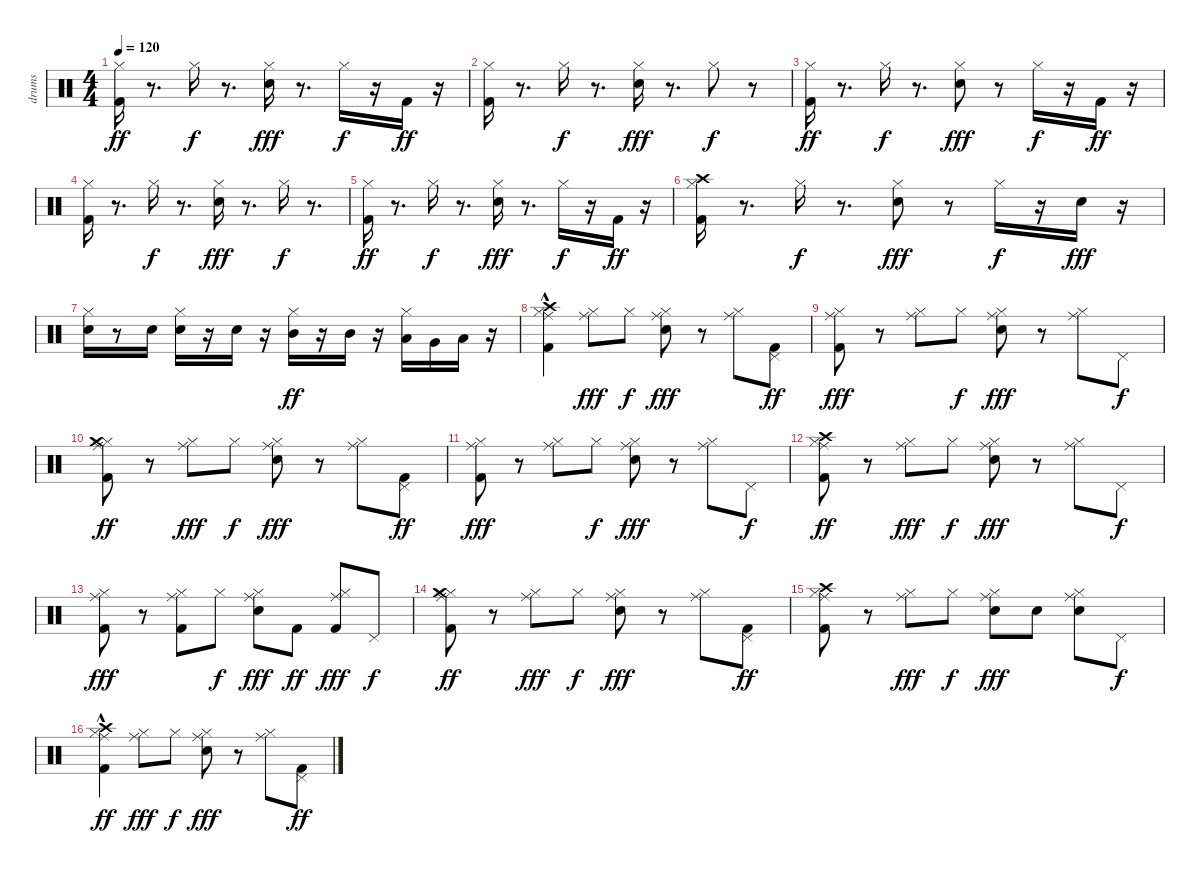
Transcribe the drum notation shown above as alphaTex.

\track ("drums" "drums") {instrument percussion}
\staff {score}
\articulation defaults
\ts (4 4)
\tempo 120
\clef neutral
\ks c
("Kick (hit) 2" "Hi-Hat (closed)").16{dy ff} r.8{d} "Hi-Hat (closed)".16{dy f} r.8{d} ("Snare (hit) 2" "Hi-Hat (closed)").16{dy fff} r.8{d} "Hi-Hat (closed)".16{dy f} r.16 "Kick (hit) 2".16{dy ff} r.16 |
("Kick (hit) 2" "Hi-Hat (closed)").16 r.8{d} "Hi-Hat (closed)".16{dy f} r.8{d} ("Snare (hit) 2" "Hi-Hat (closed)").16{dy fff} r.8{d} "Hi-Hat (closed)".8{dy f} r.8 |
("Kick (hit) 2" "Hi-Hat (closed)").16{dy ff} r.8{d} "Hi-Hat (closed)".16{dy f} r.8{d} ("Snare (hit) 2" "Hi-Hat (closed)").8{dy fff} r.8 "Hi-Hat (closed)".16{dy f} r.16 "Kick (hit) 2".16{dy ff} r.16 |
("Kick (hit) 2" "Hi-Hat (closed)").16 r.8{d} "Hi-Hat (closed)".16{dy f} r.8{d} ("Snare (hit) 2" "Hi-Hat (closed)").16{dy fff} r.8{d} "Hi-Hat (closed)".16{dy f} r.8{d} |
("Kick (hit) 2" "Hi-Hat (closed)").16{dy ff} r.8{d} "Hi-Hat (closed)".16{dy f} r.8{d} ("Snare (hit) 2" "Hi-Hat (closed)").16{dy fff} r.8{d} "Hi-Hat (closed)".16{dy f} r.16 "Kick (hit) 2".16{dy ff} r.16 |
("Kick (hit) 2" "Hi-Hat (closed)" "Crash high (hit)").16 r.8{d} "Hi-Hat (closed)".16{dy f} r.8{d} ("Snare (hit) 2" "Hi-Hat (closed)").8{dy fff} r.8 "Hi-Hat (closed)".16{dy f} r.16 "Snare (hit) 2".16{dy fff} r.16 |
("Snare (hit) 2" "Hi-Hat (closed)").16 r.8 "Snare (hit) 2".16 ("Snare (hit) 2" "Hi-Hat (closed)").16 r.16 "Snare (hit) 2".16 r.16 ("Hi-Hat (closed)" "Mid Tom (hit)").16{dy ff} r.16 "Mid Tom (hit)".16 r.16 ("Hi-Hat (closed)" "Low Tom (hit)").16 "Very Low Tom (hit)".16 "Low Floor Tom (hit)".16 r.16 |
("Kick (hit) 2" "Hi-Hat (closed)" "Ride (middle)" "Crash high (hit)"{hac}).4 ("Hi-Hat (closed)" "Ride (middle)").8{dy fff} "Hi-Hat (closed)".8{dy f} ("Snare (hit) 2" "Hi-Hat (closed)" "Ride (middle)").8{dy fff} r.8 ("Hi-Hat (closed)" "Ride (middle)").8 ("Kick (hit) 2" "Pedal Hi-Hat (hit)").8{dy ff} |
("Kick (hit) 2" "Hi-Hat (closed)" "Ride (middle)").8{dy fff} r.8 ("Hi-Hat (closed)" "Ride (middle)").8 "Hi-Hat (closed)".8{dy f} ("Snare (hit) 2" "Hi-Hat (closed)" "Ride (middle)").8{dy fff} r.8 ("Hi-Hat (closed)" "Ride (middle)").8 "Pedal Hi-Hat (hit)".8{dy f} |
("Kick (hit) 2" "Hi-Hat (closed)" "Ride (middle)" "Crash medium (hit)").8{dy ff} r.8 ("Hi-Hat (closed)" "Ride (middle)").8{dy fff} "Hi-Hat (closed)".8{dy f} ("Snare (hit) 2" "Hi-Hat (closed)" "Ride (middle)").8{dy fff} r.8 ("Hi-Hat (closed)" "Ride (middle)").8 ("Kick (hit) 2" "Pedal Hi-Hat (hit)").8{dy ff} |
("Kick (hit) 2" "Hi-Hat (closed)" "Ride (middle)").8{dy fff} r.8 ("Hi-Hat (closed)" "Ride (middle)").8 "Hi-Hat (closed)".8{dy f} ("Snare (hit) 2" "Hi-Hat (closed)" "Ride (middle)").8{dy fff} r.8 ("Hi-Hat (closed)" "Ride (middle)").8 "Pedal Hi-Hat (hit)".8{dy f} |
("Kick (hit) 2" "Hi-Hat (closed)" "Ride (middle)" "Crash high (hit)").8{dy ff} r.8 ("Hi-Hat (closed)" "Ride (middle)").8{dy fff} "Hi-Hat (closed)".8{dy f} ("Snare (hit) 2" "Hi-Hat (closed)" "Ride (middle)").8{dy fff} r.8 ("Hi-Hat (closed)" "Ride (middle)").8 "Pedal Hi-Hat (hit)".8{dy f} |
("Kick (hit) 2" "Hi-Hat (closed)" "Ride (middle)").8{dy fff} r.8 ("Kick (hit) 2" "Hi-Hat (closed)" "Ride (middle)").8 "Hi-Hat (closed)".8{dy f} ("Snare (hit) 2" "Hi-Hat (closed)" "Ride (middle)").8{dy fff} "Kick (hit) 2".8{dy ff} ("Kick (hit) 2" "Hi-Hat (closed)" "Ride (middle)").8{dy fff} "Pedal Hi-Hat (hit)".8{dy f} |
("Kick (hit) 2" "Hi-Hat (closed)" "Ride (middle)" "Crash medium (hit)").8{dy ff} r.8 ("Hi-Hat (closed)" "Ride (middle)").8{dy fff} "Hi-Hat (closed)".8{dy f} ("Snare (hit) 2" "Hi-Hat (closed)" "Ride (middle)").8{dy fff} r.8 ("Hi-Hat (closed)" "Ride (middle)").8 ("Kick (hit) 2" "Pedal Hi-Hat (hit)").8{dy ff} |
("Kick (hit) 2" "Hi-Hat (closed)" "Ride (middle)" "Crash high (hit)").8 r.8 ("Hi-Hat (closed)" "Ride (middle)").8{dy fff} "Hi-Hat (closed)".8{dy f} ("Snare (hit) 2" "Hi-Hat (closed)" "Ride (middle)").8{dy fff} "Snare (hit) 2".8 ("Snare (hit) 2" "Hi-Hat (closed)" "Ride (middle)").8 "Pedal Hi-Hat (hit)".8{dy f} |
("Kick (hit) 2" "Hi-Hat (closed)" "Ride (middle)" "Crash high (hit)"{hac}).4{dy ff} ("Hi-Hat (closed)" "Ride (middle)").8{dy fff} "Hi-Hat (closed)".8{dy f} ("Snare (hit) 2" "Hi-Hat (closed)" "Ride (middle)").8{dy fff} r.8 ("Hi-Hat (closed)" "Ride (middle)").8 ("Kick (hit) 2" "Pedal Hi-Hat (hit)").8{dy ff}
